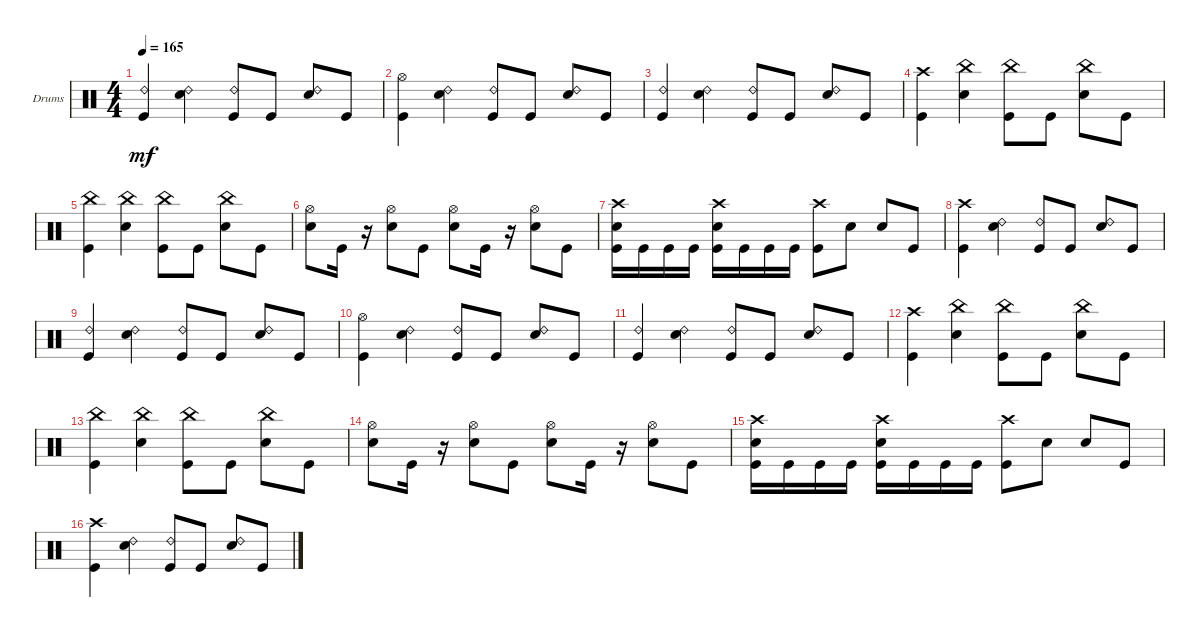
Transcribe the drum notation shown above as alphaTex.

\bracketExtendMode groupsimilarinstruments
\firstSystemTrackNameOrientation horizontal
\otherSystemsTrackNameOrientation horizontal
\track ("Drums" "Drums") {solo instrument percussion}
\staff {score}
\articulation defaults
\ts (4 4)
\tempo 165
\clef neutral
\ks c
("Kick (hit)" "Ride (bell) 2").4{dy mf} ("Snare (hit) 2" "Ride (bell) 2").4 ("Kick (hit)" "Ride (bell) 2").8 "Kick (hit)".8 ("Snare (hit) 2" "Ride (bell) 2").8 "Kick (hit)".8 |
("Kick (hit)" "Hi-Hat (open)").4 ("Snare (hit) 2" "Ride (bell) 2").4 ("Kick (hit)" "Ride (bell) 2").8 "Kick (hit)".8 ("Snare (hit) 2" "Ride (bell) 2").8 "Kick (hit)".8 |
("Kick (hit)" "Ride (bell) 2").4 ("Snare (hit) 2" "Ride (bell) 2").4 ("Kick (hit)" "Ride (bell) 2").8 "Kick (hit)".8 ("Snare (hit) 2" "Ride (bell) 2").8 "Kick (hit)".8 |
("Kick (hit)" "Crash high (hit)").4 ("Snare (hit) 2" "China (hit)").4 ("Kick (hit)" "China (hit)").8 "Kick (hit)".8 ("Snare (hit) 2" "China (hit)").8 "Kick (hit)".8 |
("Kick (hit)" "China (hit)").4 ("Snare (hit) 2" "China (hit)").4 ("Kick (hit)" "China (hit)").8 "Kick (hit)".8 ("Snare (hit) 2" "China (hit)").8 "Kick (hit)".8 |
("Snare (hit) 2" "Hi-Hat (open)").8 "Kick (hit)".16 r.16 ("Snare (hit) 2" "Hi-Hat (open)").8 "Kick (hit)".8 ("Snare (hit) 2" "Hi-Hat (open)").8 "Kick (hit)".16 r.16 ("Snare (hit) 2" "Hi-Hat (open)").8 "Kick (hit)".8 |
("Kick (hit)" "Snare (hit) 2" "Crash high (hit)").16 "Kick (hit)".16 "Kick (hit)".16 "Kick (hit)".16 ("Kick (hit)" "Snare (hit) 2" "Crash high (hit)").16 "Kick (hit)".16 "Kick (hit)".16 "Kick (hit)".16 ("Crash high (hit)" "Kick (hit)").8 "Snare (hit) 2".8 "Snare (hit) 2".8 "Kick (hit)".8 |
("Kick (hit)" "Crash high (hit)").4 ("Snare (hit) 2" "Ride (bell) 2").4 ("Kick (hit)" "Ride (bell) 2").8 "Kick (hit)".8 ("Snare (hit) 2" "Ride (bell) 2").8 "Kick (hit)".8 |
("Kick (hit)" "Ride (bell) 2").4 ("Snare (hit) 2" "Ride (bell) 2").4 ("Kick (hit)" "Ride (bell) 2").8 "Kick (hit)".8 ("Snare (hit) 2" "Ride (bell) 2").8 "Kick (hit)".8 |
("Kick (hit)" "Hi-Hat (open)").4 ("Snare (hit) 2" "Ride (bell) 2").4 ("Kick (hit)" "Ride (bell) 2").8 "Kick (hit)".8 ("Snare (hit) 2" "Ride (bell) 2").8 "Kick (hit)".8 |
("Kick (hit)" "Ride (bell) 2").4 ("Snare (hit) 2" "Ride (bell) 2").4 ("Kick (hit)" "Ride (bell) 2").8 "Kick (hit)".8 ("Snare (hit) 2" "Ride (bell) 2").8 "Kick (hit)".8 |
("Kick (hit)" "Crash high (hit)").4 ("Snare (hit) 2" "China (hit)").4 ("Kick (hit)" "China (hit)").8 "Kick (hit)".8 ("Snare (hit) 2" "China (hit)").8 "Kick (hit)".8 |
("Kick (hit)" "China (hit)").4 ("Snare (hit) 2" "China (hit)").4 ("Kick (hit)" "China (hit)").8 "Kick (hit)".8 ("Snare (hit) 2" "China (hit)").8 "Kick (hit)".8 |
("Snare (hit) 2" "Hi-Hat (open)").8 "Kick (hit)".16 r.16 ("Snare (hit) 2" "Hi-Hat (open)").8 "Kick (hit)".8 ("Snare (hit) 2" "Hi-Hat (open)").8 "Kick (hit)".16 r.16 ("Snare (hit) 2" "Hi-Hat (open)").8 "Kick (hit)".8 |
("Kick (hit)" "Snare (hit) 2" "Crash high (hit)").16 "Kick (hit)".16 "Kick (hit)".16 "Kick (hit)".16 ("Kick (hit)" "Snare (hit) 2" "Crash high (hit)").16 "Kick (hit)".16 "Kick (hit)".16 "Kick (hit)".16 ("Crash high (hit)" "Kick (hit)").8 "Snare (hit) 2".8 "Snare (hit) 2".8 "Kick (hit)".8 |
("Kick (hit)" "Crash high (hit)").4 ("Snare (hit) 2" "Ride (bell) 2").4 ("Kick (hit)" "Ride (bell) 2").8 "Kick (hit)".8 ("Snare (hit) 2" "Ride (bell) 2").8 "Kick (hit)".8
